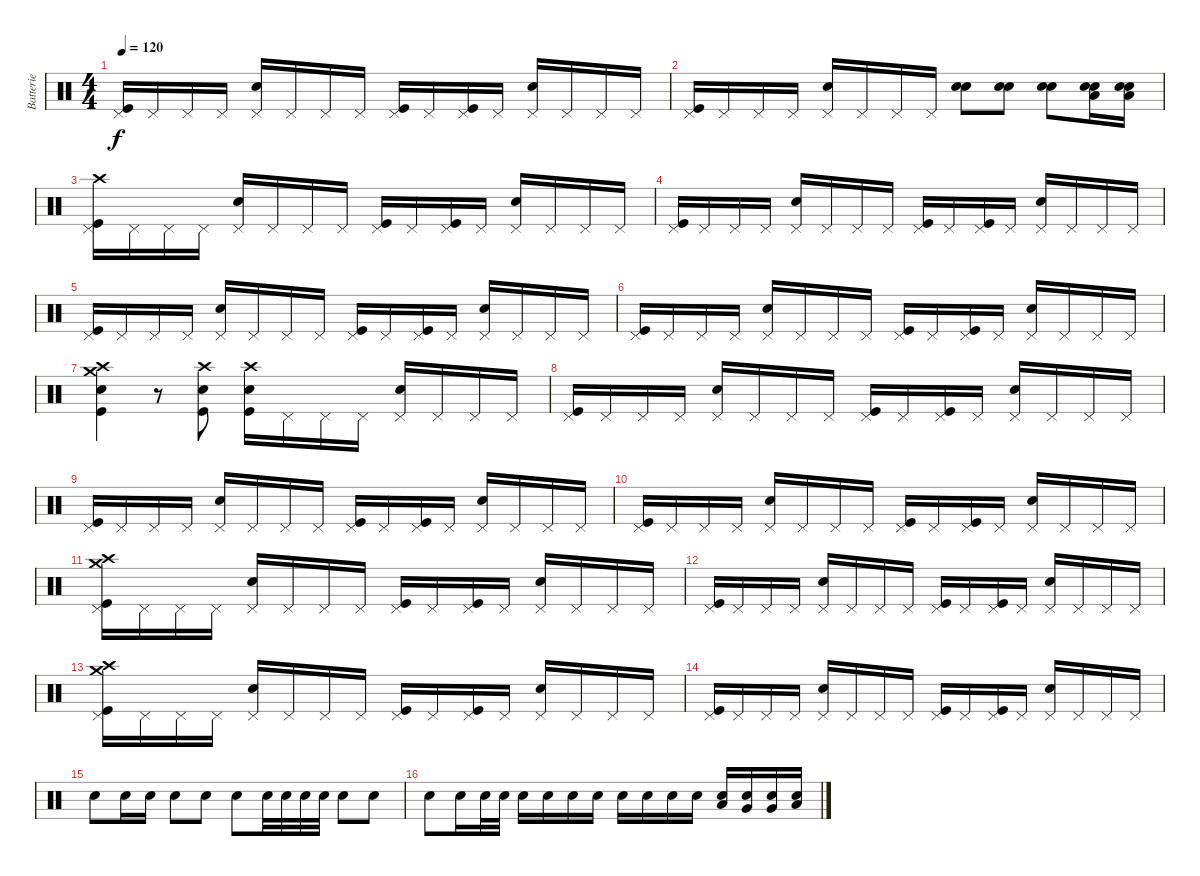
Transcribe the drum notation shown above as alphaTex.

\track ("Batterie" "Batterie") {instrument percussion}
\staff {score}
\articulation defaults
\ts (4 4)
\tempo 120
\clef neutral
\ks c
("Pedal Hi-Hat (hit)" "Kick (hit)").16{dy f} "Pedal Hi-Hat (hit)".16 "Pedal Hi-Hat (hit)".16 "Pedal Hi-Hat (hit)".16 ("Electric Snare (hit)" "Pedal Hi-Hat (hit)").16 "Pedal Hi-Hat (hit)".16 "Pedal Hi-Hat (hit)".16 "Pedal Hi-Hat (hit)".16 ("Pedal Hi-Hat (hit)" "Kick (hit)").16 "Pedal Hi-Hat (hit)".16 ("Pedal Hi-Hat (hit)" "Kick (hit)").16 "Pedal Hi-Hat (hit)".16 ("Electric Snare (hit)" "Pedal Hi-Hat (hit)").16 "Pedal Hi-Hat (hit)".16 "Pedal Hi-Hat (hit)".16 "Pedal Hi-Hat (hit)".16 |
("Pedal Hi-Hat (hit)" "Kick (hit)").16 "Pedal Hi-Hat (hit)".16 "Pedal Hi-Hat (hit)".16 "Pedal Hi-Hat (hit)".16 ("Electric Snare (hit)" "Pedal Hi-Hat (hit)").16 "Pedal Hi-Hat (hit)".16 "Pedal Hi-Hat (hit)".16 "Pedal Hi-Hat (hit)".16 ("Electric Snare (hit)" "Snare (hit) 2").8 ("Electric Snare (hit)" "Snare (hit) 2").8 ("Electric Snare (hit)" "Snare (hit) 2").8 ("Electric Snare (hit)" "Snare (hit) 2" "Low Tom (hit)").16 ("Electric Snare (hit)" "Snare (hit) 2" "Low Floor Tom (hit)").16 |
("Crash high (hit)" "Pedal Hi-Hat (hit)" "Kick (hit)").16 "Pedal Hi-Hat (hit)".16 "Pedal Hi-Hat (hit)".16 "Pedal Hi-Hat (hit)".16 ("Electric Snare (hit)" "Pedal Hi-Hat (hit)").16 "Pedal Hi-Hat (hit)".16 "Pedal Hi-Hat (hit)".16 "Pedal Hi-Hat (hit)".16 ("Pedal Hi-Hat (hit)" "Kick (hit)").16 "Pedal Hi-Hat (hit)".16 ("Pedal Hi-Hat (hit)" "Kick (hit)").16 "Pedal Hi-Hat (hit)".16 ("Electric Snare (hit)" "Pedal Hi-Hat (hit)").16 "Pedal Hi-Hat (hit)".16 "Pedal Hi-Hat (hit)".16 "Pedal Hi-Hat (hit)".16 |
("Pedal Hi-Hat (hit)" "Kick (hit)").16 "Pedal Hi-Hat (hit)".16 "Pedal Hi-Hat (hit)".16 "Pedal Hi-Hat (hit)".16 ("Electric Snare (hit)" "Pedal Hi-Hat (hit)").16 "Pedal Hi-Hat (hit)".16 "Pedal Hi-Hat (hit)".16 "Pedal Hi-Hat (hit)".16 ("Pedal Hi-Hat (hit)" "Kick (hit)").16 "Pedal Hi-Hat (hit)".16 ("Pedal Hi-Hat (hit)" "Kick (hit)").16 "Pedal Hi-Hat (hit)".16 ("Electric Snare (hit)" "Pedal Hi-Hat (hit)").16 "Pedal Hi-Hat (hit)".16 "Pedal Hi-Hat (hit)".16 "Pedal Hi-Hat (hit)".16 |
("Pedal Hi-Hat (hit)" "Kick (hit)").16 "Pedal Hi-Hat (hit)".16 "Pedal Hi-Hat (hit)".16 "Pedal Hi-Hat (hit)".16 ("Electric Snare (hit)" "Pedal Hi-Hat (hit)").16 "Pedal Hi-Hat (hit)".16 "Pedal Hi-Hat (hit)".16 "Pedal Hi-Hat (hit)".16 ("Pedal Hi-Hat (hit)" "Kick (hit)").16 "Pedal Hi-Hat (hit)".16 ("Pedal Hi-Hat (hit)" "Kick (hit)").16 "Pedal Hi-Hat (hit)".16 ("Electric Snare (hit)" "Pedal Hi-Hat (hit)").16 "Pedal Hi-Hat (hit)".16 "Pedal Hi-Hat (hit)".16 "Pedal Hi-Hat (hit)".16 |
("Pedal Hi-Hat (hit)" "Kick (hit)").16 "Pedal Hi-Hat (hit)".16 "Pedal Hi-Hat (hit)".16 "Pedal Hi-Hat (hit)".16 ("Electric Snare (hit)" "Pedal Hi-Hat (hit)").16 "Pedal Hi-Hat (hit)".16 "Pedal Hi-Hat (hit)".16 "Pedal Hi-Hat (hit)".16 ("Pedal Hi-Hat (hit)" "Kick (hit)").16 "Pedal Hi-Hat (hit)".16 ("Pedal Hi-Hat (hit)" "Kick (hit)").16 "Pedal Hi-Hat (hit)".16 ("Electric Snare (hit)" "Pedal Hi-Hat (hit)").16 "Pedal Hi-Hat (hit)".16 "Pedal Hi-Hat (hit)".16 "Pedal Hi-Hat (hit)".16 |
("Crash high (hit)" "Crash medium (hit)" "Electric Snare (hit)" "Kick (hit)").4 r.8 ("Crash high (hit)" "Electric Snare (hit)" "Kick (hit)").8 ("Crash high (hit)" "Electric Snare (hit)" "Kick (hit)").16 "Pedal Hi-Hat (hit)".16 "Pedal Hi-Hat (hit)".16 "Pedal Hi-Hat (hit)".16 ("Electric Snare (hit)" "Pedal Hi-Hat (hit)").16 "Pedal Hi-Hat (hit)".16 "Pedal Hi-Hat (hit)".16 "Pedal Hi-Hat (hit)".16 |
("Pedal Hi-Hat (hit)" "Kick (hit)").16 "Pedal Hi-Hat (hit)".16 "Pedal Hi-Hat (hit)".16 "Pedal Hi-Hat (hit)".16 ("Electric Snare (hit)" "Pedal Hi-Hat (hit)").16 "Pedal Hi-Hat (hit)".16 "Pedal Hi-Hat (hit)".16 "Pedal Hi-Hat (hit)".16 ("Pedal Hi-Hat (hit)" "Kick (hit)").16 "Pedal Hi-Hat (hit)".16 ("Pedal Hi-Hat (hit)" "Kick (hit)").16 "Pedal Hi-Hat (hit)".16 ("Electric Snare (hit)" "Pedal Hi-Hat (hit)").16 "Pedal Hi-Hat (hit)".16 "Pedal Hi-Hat (hit)".16 "Pedal Hi-Hat (hit)".16 |
("Pedal Hi-Hat (hit)" "Kick (hit)").16 "Pedal Hi-Hat (hit)".16 "Pedal Hi-Hat (hit)".16 "Pedal Hi-Hat (hit)".16 ("Electric Snare (hit)" "Pedal Hi-Hat (hit)").16 "Pedal Hi-Hat (hit)".16 "Pedal Hi-Hat (hit)".16 "Pedal Hi-Hat (hit)".16 ("Pedal Hi-Hat (hit)" "Kick (hit)").16 "Pedal Hi-Hat (hit)".16 ("Pedal Hi-Hat (hit)" "Kick (hit)").16 "Pedal Hi-Hat (hit)".16 ("Electric Snare (hit)" "Pedal Hi-Hat (hit)").16 "Pedal Hi-Hat (hit)".16 "Pedal Hi-Hat (hit)".16 "Pedal Hi-Hat (hit)".16 |
("Pedal Hi-Hat (hit)" "Kick (hit)").16 "Pedal Hi-Hat (hit)".16 "Pedal Hi-Hat (hit)".16 "Pedal Hi-Hat (hit)".16 ("Electric Snare (hit)" "Pedal Hi-Hat (hit)").16 "Pedal Hi-Hat (hit)".16 "Pedal Hi-Hat (hit)".16 "Pedal Hi-Hat (hit)".16 ("Pedal Hi-Hat (hit)" "Kick (hit)").16 "Pedal Hi-Hat (hit)".16 ("Pedal Hi-Hat (hit)" "Kick (hit)").16 "Pedal Hi-Hat (hit)".16 ("Electric Snare (hit)" "Pedal Hi-Hat (hit)").16 "Pedal Hi-Hat (hit)".16 "Pedal Hi-Hat (hit)".16 "Pedal Hi-Hat (hit)".16 |
("Crash high (hit)" "Crash medium (hit)" "Pedal Hi-Hat (hit)" "Kick (hit)").16 "Pedal Hi-Hat (hit)".16 "Pedal Hi-Hat (hit)".16 "Pedal Hi-Hat (hit)".16 ("Electric Snare (hit)" "Pedal Hi-Hat (hit)").16 "Pedal Hi-Hat (hit)".16 "Pedal Hi-Hat (hit)".16 "Pedal Hi-Hat (hit)".16 ("Pedal Hi-Hat (hit)" "Kick (hit)").16 "Pedal Hi-Hat (hit)".16 ("Pedal Hi-Hat (hit)" "Kick (hit)").16 "Pedal Hi-Hat (hit)".16 ("Electric Snare (hit)" "Pedal Hi-Hat (hit)").16 "Pedal Hi-Hat (hit)".16 "Pedal Hi-Hat (hit)".16 "Pedal Hi-Hat (hit)".16 |
("Pedal Hi-Hat (hit)" "Kick (hit)").16 "Pedal Hi-Hat (hit)".16 "Pedal Hi-Hat (hit)".16 "Pedal Hi-Hat (hit)".16 ("Electric Snare (hit)" "Pedal Hi-Hat (hit)").16 "Pedal Hi-Hat (hit)".16 "Pedal Hi-Hat (hit)".16 "Pedal Hi-Hat (hit)".16 ("Pedal Hi-Hat (hit)" "Kick (hit)").16 "Pedal Hi-Hat (hit)".16 ("Pedal Hi-Hat (hit)" "Kick (hit)").16 "Pedal Hi-Hat (hit)".16 ("Electric Snare (hit)" "Pedal Hi-Hat (hit)").16 "Pedal Hi-Hat (hit)".16 "Pedal Hi-Hat (hit)".16 "Pedal Hi-Hat (hit)".16 |
("Crash medium (hit)" "Crash high (hit)" "Pedal Hi-Hat (hit)" "Kick (hit)").16 "Pedal Hi-Hat (hit)".16 "Pedal Hi-Hat (hit)".16 "Pedal Hi-Hat (hit)".16 ("Electric Snare (hit)" "Pedal Hi-Hat (hit)").16 "Pedal Hi-Hat (hit)".16 "Pedal Hi-Hat (hit)".16 "Pedal Hi-Hat (hit)".16 ("Pedal Hi-Hat (hit)" "Kick (hit)").16 "Pedal Hi-Hat (hit)".16 ("Pedal Hi-Hat (hit)" "Kick (hit)").16 "Pedal Hi-Hat (hit)".16 ("Electric Snare (hit)" "Pedal Hi-Hat (hit)").16 "Pedal Hi-Hat (hit)".16 "Pedal Hi-Hat (hit)".16 "Pedal Hi-Hat (hit)".16 |
("Pedal Hi-Hat (hit)" "Kick (hit)").16 "Pedal Hi-Hat (hit)".16 "Pedal Hi-Hat (hit)".16 "Pedal Hi-Hat (hit)".16 ("Electric Snare (hit)" "Pedal Hi-Hat (hit)").16 "Pedal Hi-Hat (hit)".16 "Pedal Hi-Hat (hit)".16 "Pedal Hi-Hat (hit)".16 ("Pedal Hi-Hat (hit)" "Kick (hit)").16 "Pedal Hi-Hat (hit)".16 ("Pedal Hi-Hat (hit)" "Kick (hit)").16 "Pedal Hi-Hat (hit)".16 ("Electric Snare (hit)" "Pedal Hi-Hat (hit)").16 "Pedal Hi-Hat (hit)".16 "Pedal Hi-Hat (hit)".16 "Pedal Hi-Hat (hit)".16 |
"Electric Snare (hit)".8 "Electric Snare (hit)".16 "Electric Snare (hit)".16 "Electric Snare (hit)".8 "Electric Snare (hit)".8 "Electric Snare (hit)".8 "Electric Snare (hit)".32 "Electric Snare (hit)".32 "Electric Snare (hit)".32 "Electric Snare (hit)".32 "Electric Snare (hit)".8 "Electric Snare (hit)".8 |
"Electric Snare (hit)".8 "Electric Snare (hit)".16 "Electric Snare (hit)".32 "Electric Snare (hit)".32 "Electric Snare (hit)".16 "Electric Snare (hit)".16 "Electric Snare (hit)".16 "Electric Snare (hit)".16 "Electric Snare (hit)".16 "Electric Snare (hit)".16 "Electric Snare (hit)".16 "Electric Snare (hit)".16 ("Electric Snare (hit)" "Low Tom (hit)").16 ("Electric Snare (hit)" "Very Low Tom (hit)").16 ("Electric Snare (hit)" "Very Low Tom (hit)").16 ("Electric Snare (hit)" "Low Floor Tom (hit)").16
